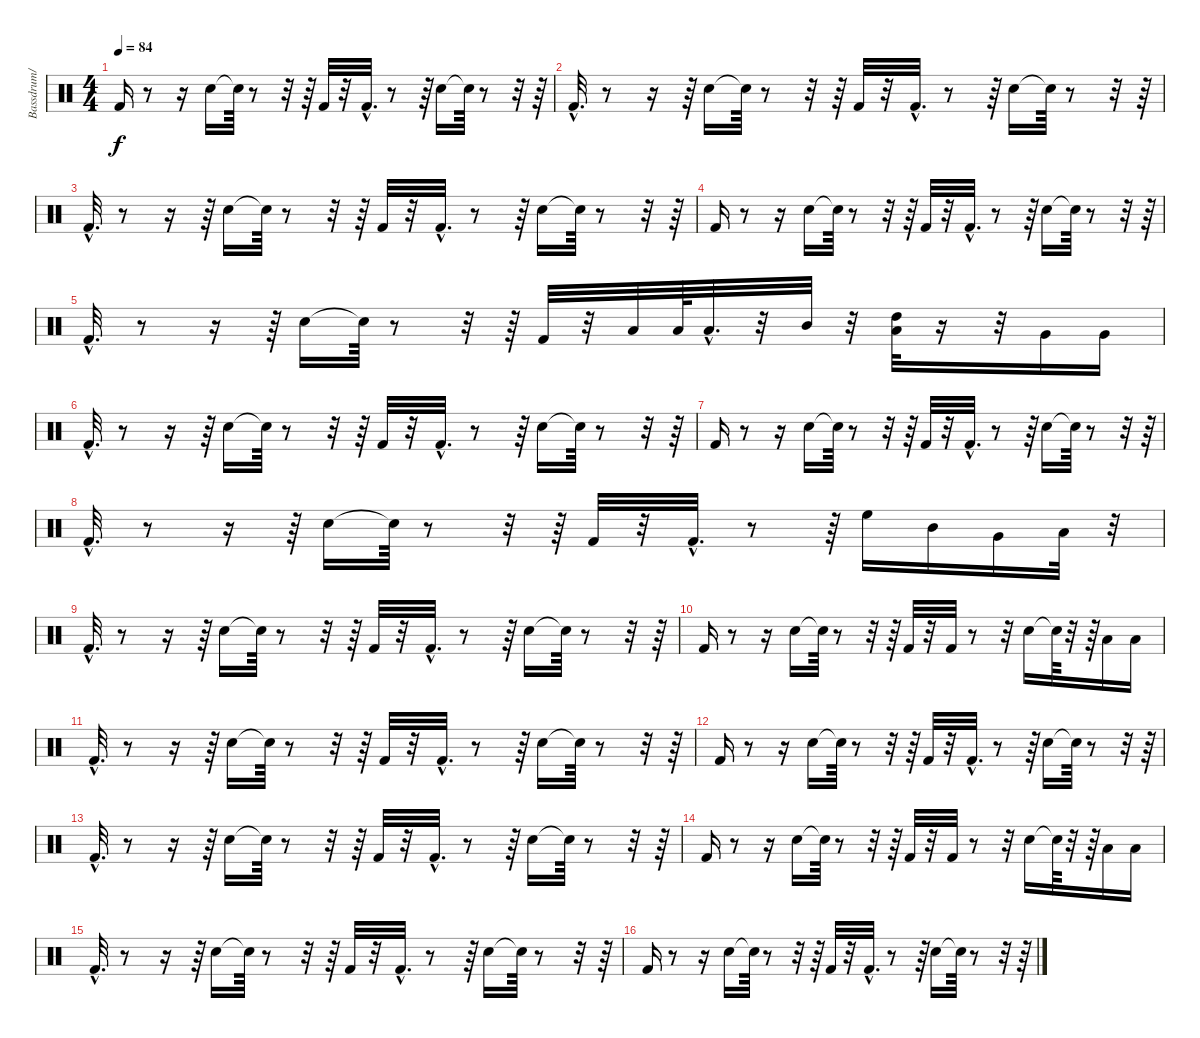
\track ("Bassdrum/" "Bassdrum/") {instrument percussion}
\staff {score}
\articulation defaults
\ts (4 4)
\tempo 84
\clef neutral
\ks c "Kick (hit) 2".16{dy f}
r.8 r.16 "Snare (hit) 2".16 "Snare (hit)"{t}.64 r.8 r.32 r.64 "Kick (hit) 2".32 r.32 "Kick (hit) 2"{hac}.32{d} r.8 r.64 "Snare (hit) 2".16 "Snare (hit)"{t}.64 r.8 r.32 r.64 |
"Kick (hit) 2"{hac}.32{d} r.8 r.16 r.64 "Snare (hit) 2".16 "Snare (hit)"{t}.64 r.8 r.32 r.64 "Kick (hit) 2".32 r.32 "Kick (hit) 2"{hac}.32{d} r.8 r.64 "Snare (hit) 2".16 "Snare (hit)"{t}.64 r.8 r.32 r.64 |
"Kick (hit) 2"{hac}.32{d} r.8 r.16 r.64 "Snare (hit) 2".16 "Snare (hit)"{t}.64 r.8 r.32 r.64 "Kick (hit) 2".32 r.32 "Kick (hit) 2"{hac}.32{d} r.8 r.64 "Snare (hit) 2".16 "Snare (hit)"{t}.64 r.8 r.32 r.64 |
"Kick (hit) 2".16 r.8 r.16 "Snare (hit) 2".16 "Snare (hit)"{t}.64 r.8 r.32 r.64 "Kick (hit) 2".32 r.32 "Kick (hit) 2"{hac}.32{d} r.8 r.64 "Snare (hit) 2".16 "Snare (hit)"{t}.64 r.8 r.32 r.64 |
"Kick (hit) 2"{hac}.32{d} r.8 r.16 r.64 "Snare (hit) 2".16 "Snare (hit)"{t}.64 r.8 r.32 r.64 "Kick (hit) 2".32 r.32 "Low Tom (hit)".32 "Low Tom (hit)".64 "Low Tom (hit)"{hac}.32{d} r.32 "Mid Tom (hit)".32 r.32 ("Low Floor Tom (hit)" "High Tom (hit)").32 r.16 r.32 "Very Low Tom (hit)".16 "Very Low Tom (hit)".16 |
"Kick (hit) 2"{hac}.32{d} r.8 r.16 r.64 "Snare (hit) 2".16 "Snare (hit)"{t}.64 r.8 r.32 r.64 "Kick (hit) 2".32 r.32 "Kick (hit) 2"{hac}.32{d} r.8 r.64 "Snare (hit) 2".16 "Snare (hit)"{t}.64 r.8 r.32 r.64 |
"Kick (hit) 2".16 r.8 r.16 "Snare (hit) 2".16 "Snare (hit)"{t}.64 r.8 r.32 r.64 "Kick (hit) 2".32 r.32 "Kick (hit) 2"{hac}.32{d} r.8 r.64 "Snare (hit) 2".16 "Snare (hit)"{t}.64 r.8 r.32 r.64 |
"Kick (hit) 2"{hac}.32{d} r.8 r.16 r.64 "Snare (hit) 2".16 "Snare (hit)"{t}.64 r.8 r.32 r.64 "Kick (hit) 2".32 r.32 "Kick (hit) 2"{hac}.32{d} r.8 r.64 "High Floor Tom (hit)".16 "Mid Tom (hit)".16 "Very Low Tom (hit)".16 "Low Floor Tom (hit)".32 r.32 |
"Kick (hit) 2"{hac}.32{d} r.8 r.16 r.64 "Snare (hit) 2".16 "Snare (hit)"{t}.64 r.8 r.32 r.64 "Kick (hit) 2".32 r.32 "Kick (hit) 2"{hac}.32{d} r.8 r.64 "Snare (hit) 2".16 "Snare (hit)"{t}.64 r.8 r.32 r.64 |
"Kick (hit) 2".16 r.8 r.16 "Snare (hit) 2".16 "Snare (hit)"{t}.64 r.8 r.32 r.64 "Kick (hit) 2".32 r.32 "Kick (hit) 2".32 r.8 r.32 "Snare (hit) 2".16 "Snare (hit)"{t}.64 r.32 r.64 "Low Tom (hit)".16 "Low Floor Tom (hit)".16 |
"Kick (hit) 2"{hac}.32{d} r.8 r.16 r.64 "Snare (hit) 2".16 "Snare (hit)"{t}.64 r.8 r.32 r.64 "Kick (hit) 2".32 r.32 "Kick (hit) 2"{hac}.32{d} r.8 r.64 "Snare (hit) 2".16 "Snare (hit)"{t}.64 r.8 r.32 r.64 |
"Kick (hit) 2".16 r.8 r.16 "Snare (hit) 2".16 "Snare (hit)"{t}.64 r.8 r.32 r.64 "Kick (hit) 2".32 r.32 "Kick (hit) 2"{hac}.32{d} r.8 r.64 "Snare (hit) 2".16 "Snare (hit)"{t}.64 r.8 r.32 r.64 |
"Kick (hit) 2"{hac}.32{d} r.8 r.16 r.64 "Snare (hit) 2".16 "Snare (hit)"{t}.64 r.8 r.32 r.64 "Kick (hit) 2".32 r.32 "Kick (hit) 2"{hac}.32{d} r.8 r.64 "Snare (hit) 2".16 "Snare (hit)"{t}.64 r.8 r.32 r.64 |
"Kick (hit) 2".16 r.8 r.16 "Snare (hit) 2".16 "Snare (hit)"{t}.64 r.8 r.32 r.64 "Kick (hit) 2".32 r.32 "Kick (hit) 2".32 r.8 r.32 "Snare (hit) 2".16 "Snare (hit)"{t}.64 r.32 r.64 "Low Tom (hit)".16 "Low Floor Tom (hit)".16 |
"Kick (hit) 2"{hac}.32{d} r.8 r.16 r.64 "Snare (hit) 2".16 "Snare (hit)"{t}.64 r.8 r.32 r.64 "Kick (hit) 2".32 r.32 "Kick (hit) 2"{hac}.32{d} r.8 r.64 "Snare (hit) 2".16 "Snare (hit)"{t}.64 r.8 r.32 r.64 |
"Kick (hit) 2".16 r.8 r.16 "Snare (hit) 2".16 "Snare (hit)"{t}.64 r.8 r.32 r.64 "Kick (hit) 2".32 r.32 "Kick (hit) 2"{hac}.32{d} r.8 r.64 "Snare (hit) 2".16 "Snare (hit)"{t}.64 r.8 r.32 r.64
